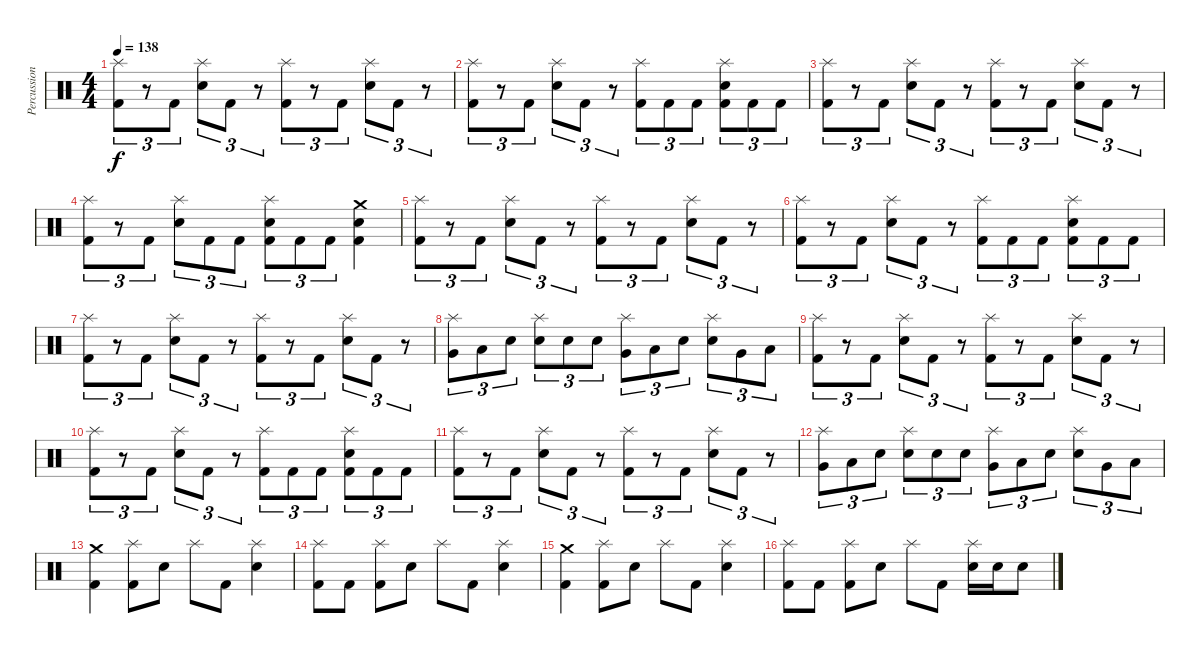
\track ("Percussion" "Percussion") {instrument percussion}
\staff {score}
\articulation defaults
\ts (4 4)
\tempo 138
\clef neutral
\ks c
("Splash (hit)" "Kick (hit) 2").8{tu (3 2) dy f} r.8{tu (3 2)} "Kick (hit) 2".8{tu (3 2)} ("Splash (hit)" "Snare (hit) 2").8{tu (3 2)} "Kick (hit) 2".8{tu (3 2)} r.8{tu (3 2)} ("Splash (hit)" "Kick (hit) 2").8{tu (3 2)} r.8{tu (3 2)} "Kick (hit) 2".8{tu (3 2)} ("Splash (hit)" "Snare (hit) 2").8{tu (3 2)} "Kick (hit) 2".8{tu (3 2)} r.8{tu (3 2)} |
("Splash (hit)" "Kick (hit) 2").8{tu (3 2)} r.8{tu (3 2)} "Kick (hit) 2".8{tu (3 2)} ("Splash (hit)" "Snare (hit) 2").8{tu (3 2)} "Kick (hit) 2".8{tu (3 2)} r.8{tu (3 2)} ("Splash (hit)" "Kick (hit) 2").8{tu (3 2)} "Kick (hit) 2".8{tu (3 2)} "Kick (hit) 2".8{tu (3 2)} ("Splash (hit)" "Snare (hit) 2" "Kick (hit) 2").8{tu (3 2)} "Kick (hit) 2".8{tu (3 2)} "Kick (hit) 2".8{tu (3 2)} |
("Splash (hit)" "Kick (hit) 2").8{tu (3 2)} r.8{tu (3 2)} "Kick (hit) 2".8{tu (3 2)} ("Splash (hit)" "Snare (hit) 2").8{tu (3 2)} "Kick (hit) 2".8{tu (3 2)} r.8{tu (3 2)} ("Splash (hit)" "Kick (hit) 2").8{tu (3 2)} r.8{tu (3 2)} "Kick (hit) 2".8{tu (3 2)} ("Splash (hit)" "Snare (hit) 2").8{tu (3 2)} "Kick (hit) 2".8{tu (3 2)} r.8{tu (3 2)} |
("Splash (hit)" "Kick (hit) 2").8{tu (3 2)} r.8{tu (3 2)} "Kick (hit) 2".8{tu (3 2)} ("Splash (hit)" "Snare (hit) 2").8{tu (3 2)} "Kick (hit) 2".8{tu (3 2)} "Kick (hit) 2".8{tu (3 2)} ("Splash (hit)" "Snare (hit) 2" "Kick (hit) 2").8{tu (3 2)} "Kick (hit) 2".8{tu (3 2)} "Kick (hit) 2".8{tu (3 2)} ("Crash medium (hit)" "Snare (hit) 2" "Kick (hit) 2").4 |
("Splash (hit)" "Kick (hit) 2").8{tu (3 2)} r.8{tu (3 2)} "Kick (hit) 2".8{tu (3 2)} ("Splash (hit)" "Snare (hit) 2").8{tu (3 2)} "Kick (hit) 2".8{tu (3 2)} r.8{tu (3 2)} ("Splash (hit)" "Kick (hit) 2").8{tu (3 2)} r.8{tu (3 2)} "Kick (hit) 2".8{tu (3 2)} ("Splash (hit)" "Snare (hit) 2").8{tu (3 2)} "Kick (hit) 2".8{tu (3 2)} r.8{tu (3 2)} |
("Splash (hit)" "Kick (hit) 2").8{tu (3 2)} r.8{tu (3 2)} "Kick (hit) 2".8{tu (3 2)} ("Splash (hit)" "Snare (hit) 2").8{tu (3 2)} "Kick (hit) 2".8{tu (3 2)} r.8{tu (3 2)} ("Splash (hit)" "Kick (hit) 2").8{tu (3 2)} "Kick (hit) 2".8{tu (3 2)} "Kick (hit) 2".8{tu (3 2)} ("Splash (hit)" "Snare (hit) 2" "Kick (hit) 2").8{tu (3 2)} "Kick (hit) 2".8{tu (3 2)} "Kick (hit) 2".8{tu (3 2)} |
("Splash (hit)" "Kick (hit) 2").8{tu (3 2)} r.8{tu (3 2)} "Kick (hit) 2".8{tu (3 2)} ("Splash (hit)" "Snare (hit) 2").8{tu (3 2)} "Kick (hit) 2".8{tu (3 2)} r.8{tu (3 2)} ("Splash (hit)" "Kick (hit) 2").8{tu (3 2)} r.8{tu (3 2)} "Kick (hit) 2".8{tu (3 2)} ("Splash (hit)" "Snare (hit) 2").8{tu (3 2)} "Kick (hit) 2".8{tu (3 2)} r.8{tu (3 2)} |
("Splash (hit)" "Very Low Tom (hit)").8{tu (3 2)} "Low Floor Tom (hit)".8{tu (3 2)} "Snare (hit) 2".8{tu (3 2)} ("Splash (hit)" "Snare (hit) 2").8{tu (3 2)} "Snare (hit) 2".8{tu (3 2)} "Snare (hit) 2".8{tu (3 2)} ("Splash (hit)" "Very Low Tom (hit)").8{tu (3 2)} "Low Floor Tom (hit)".8{tu (3 2)} "Snare (hit) 2".8{tu (3 2)} ("Splash (hit)" "Snare (hit) 2").8{tu (3 2)} "Very Low Tom (hit)".8{tu (3 2)} "Low Floor Tom (hit)".8{tu (3 2)} |
("Splash (hit)" "Kick (hit) 2").8{tu (3 2)} r.8{tu (3 2)} "Kick (hit) 2".8{tu (3 2)} ("Splash (hit)" "Snare (hit) 2").8{tu (3 2)} "Kick (hit) 2".8{tu (3 2)} r.8{tu (3 2)} ("Splash (hit)" "Kick (hit) 2").8{tu (3 2)} r.8{tu (3 2)} "Kick (hit) 2".8{tu (3 2)} ("Splash (hit)" "Snare (hit) 2").8{tu (3 2)} "Kick (hit) 2".8{tu (3 2)} r.8{tu (3 2)} |
("Splash (hit)" "Kick (hit) 2").8{tu (3 2)} r.8{tu (3 2)} "Kick (hit) 2".8{tu (3 2)} ("Splash (hit)" "Snare (hit) 2").8{tu (3 2)} "Kick (hit) 2".8{tu (3 2)} r.8{tu (3 2)} ("Splash (hit)" "Kick (hit) 2").8{tu (3 2)} "Kick (hit) 2".8{tu (3 2)} "Kick (hit) 2".8{tu (3 2)} ("Splash (hit)" "Snare (hit) 2" "Kick (hit) 2").8{tu (3 2)} "Kick (hit) 2".8{tu (3 2)} "Kick (hit) 2".8{tu (3 2)} |
("Splash (hit)" "Kick (hit) 2").8{tu (3 2)} r.8{tu (3 2)} "Kick (hit) 2".8{tu (3 2)} ("Splash (hit)" "Snare (hit) 2").8{tu (3 2)} "Kick (hit) 2".8{tu (3 2)} r.8{tu (3 2)} ("Splash (hit)" "Kick (hit) 2").8{tu (3 2)} r.8{tu (3 2)} "Kick (hit) 2".8{tu (3 2)} ("Splash (hit)" "Snare (hit) 2").8{tu (3 2)} "Kick (hit) 2".8{tu (3 2)} r.8{tu (3 2)} |
("Splash (hit)" "Very Low Tom (hit)").8{tu (3 2)} "Low Floor Tom (hit)".8{tu (3 2)} "Snare (hit) 2".8{tu (3 2)} ("Splash (hit)" "Snare (hit) 2").8{tu (3 2)} "Snare (hit) 2".8{tu (3 2)} "Snare (hit) 2".8{tu (3 2)} ("Splash (hit)" "Very Low Tom (hit)").8{tu (3 2)} "Low Floor Tom (hit)".8{tu (3 2)} "Snare (hit) 2".8{tu (3 2)} ("Splash (hit)" "Snare (hit) 2").8{tu (3 2)} "Very Low Tom (hit)".8{tu (3 2)} "Low Floor Tom (hit)".8{tu (3 2)} |
("Crash medium (hit)" "Kick (hit) 2").4 ("Splash (hit)" "Kick (hit) 2").8 "Snare (hit) 2".8 "Splash (hit)".8 "Kick (hit) 2".8 ("Splash (hit)" "Snare (hit) 2").4 |
("Splash (hit)" "Kick (hit) 2").8 "Kick (hit) 2".8 ("Splash (hit)" "Kick (hit) 2").8 "Snare (hit) 2".8 "Splash (hit)".8 "Kick (hit) 2".8 ("Splash (hit)" "Snare (hit) 2").4 |
("Crash medium (hit)" "Kick (hit) 2").4 ("Splash (hit)" "Kick (hit) 2").8 "Snare (hit) 2".8 "Splash (hit)".8 "Kick (hit) 2".8 ("Splash (hit)" "Snare (hit) 2").4 |
("Splash (hit)" "Kick (hit) 2").8 "Kick (hit) 2".8 ("Splash (hit)" "Kick (hit) 2").8 "Snare (hit) 2".8 "Splash (hit)".8 "Kick (hit) 2".8 ("Splash (hit)" "Snare (hit) 2").16 "Snare (hit) 2".16 "Snare (hit) 2".8
